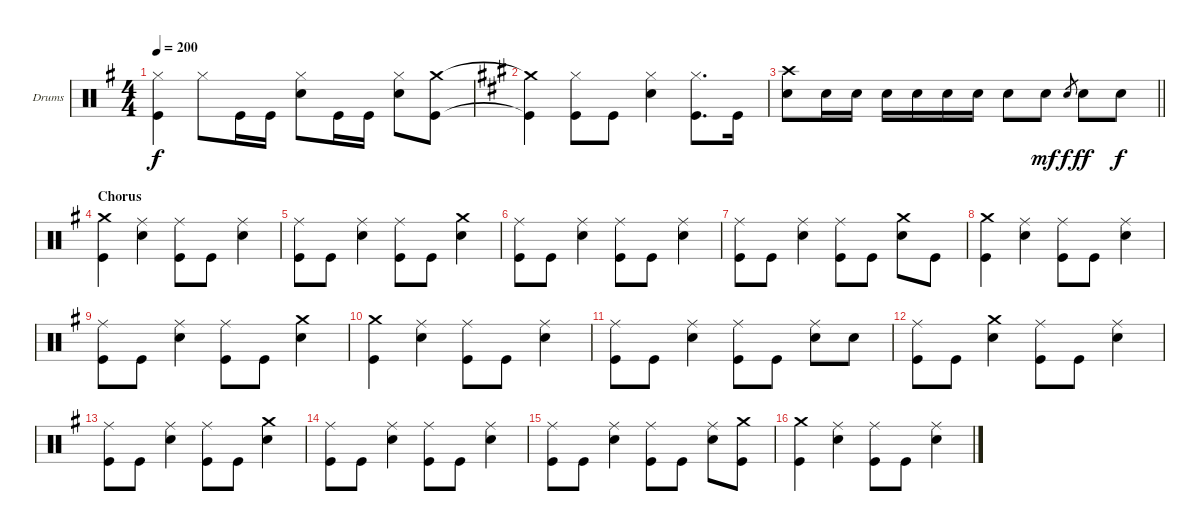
\bracketExtendMode groupsimilarinstruments
\firstSystemTrackNameOrientation horizontal
\otherSystemsTrackNameOrientation horizontal
\track ("Drums" "Drums") {instrument percussion}
\staff {score}
\articulation defaults
\ts (4 4)
\tempo 200
\clef neutral
\ks g
("Kick (hit)" "Hi-Hat (closed)").4{dy f} "Hi-Hat (closed)".8 "Kick (hit)".16 "Kick (hit)".16 ("Snare (hit) 2" "Hi-Hat (closed)").8 "Kick (hit)".16 "Kick (hit)".16 ("Snare (hit) 2" "Hi-Hat (closed)").8 ("Crash medium (hit)" "Kick (hit)").8 |
\ks a
("Crash medium (hit)"{t} "Kick (hit)"{t}).4 ("Hi-Hat (closed)" "Kick (hit)").8 "Kick (hit)".8 ("Hi-Hat (closed)" "Snare (hit) 2").4 ("Hi-Hat (closed)" "Kick (hit)").8{d} "Kick (hit)".16 |
\barLineRight lightlight
("Snare (hit) 2" "Crash high (hit)").8 "Snare (hit) 2".16 "Snare (hit) 2".16 "Snare (hit) 2".16 "Snare (hit) 2".16 "Snare (hit) 2".16 "Snare (hit) 2".16 "Snare (hit) 2".8 "Snare (hit) 2".8{dy mf} "Snare (hit) 2".8{gr dy f} "Snare (hit) 2".8{dy ff} "Snare (hit) 2".8{dy f} |
\section ("" "Chorus")
\ks g
("Crash medium (hit)" "Kick (hit)").4 ("Ride (middle)" "Snare (hit) 2").4 ("Ride (middle)" "Kick (hit)").8 "Kick (hit)".8 ("Ride (middle)" "Snare (hit) 2").4 |
("Ride (middle)" "Kick (hit)").8 "Kick (hit)".8 ("Ride (middle)" "Snare (hit) 2").4 ("Ride (middle)" "Kick (hit)").8 "Kick (hit)".8 ("Crash medium (hit)" "Snare (hit) 2").4 |
("Ride (middle)" "Kick (hit)").8 "Kick (hit)".8 ("Ride (middle)" "Snare (hit) 2").4 ("Ride (middle)" "Kick (hit)").8 "Kick (hit)".8 ("Ride (middle)" "Snare (hit) 2").4 |
("Ride (middle)" "Kick (hit)").8 "Kick (hit)".8 ("Ride (middle)" "Snare (hit) 2").4 ("Ride (middle)" "Kick (hit)").8 "Kick (hit)".8 ("Snare (hit) 2" "Crash medium (hit)").8 "Kick (hit)".8 |
("Crash medium (hit)" "Kick (hit)").4 ("Ride (middle)" "Snare (hit) 2").4 ("Ride (middle)" "Kick (hit)").8 "Kick (hit)".8 ("Ride (middle)" "Snare (hit) 2").4 |
("Ride (middle)" "Kick (hit)").8 "Kick (hit)".8 ("Ride (middle)" "Snare (hit) 2").4 ("Ride (middle)" "Kick (hit)").8 "Kick (hit)".8 ("Crash medium (hit)" "Snare (hit) 2").4 |
("Crash medium (hit)" "Kick (hit)").4 ("Ride (middle)" "Snare (hit) 2").4 ("Ride (middle)" "Kick (hit)").8 "Kick (hit)".8 ("Ride (middle)" "Snare (hit) 2").4 |
("Ride (middle)" "Kick (hit)").8 "Kick (hit)".8 ("Ride (middle)" "Snare (hit) 2").4 ("Ride (middle)" "Kick (hit)").8 "Kick (hit)".8 ("Ride (middle)" "Snare (hit) 2").8 "Snare (hit) 2".8 |
("Ride (middle)" "Kick (hit)").8 "Kick (hit)".8 ("Snare (hit) 2" "Crash medium (hit)").4 ("Ride (middle)" "Kick (hit)").8 "Kick (hit)".8 ("Ride (middle)" "Snare (hit) 2").4 |
("Ride (middle)" "Kick (hit)").8 "Kick (hit)".8 ("Ride (middle)" "Snare (hit) 2").4 ("Ride (middle)" "Kick (hit)").8 "Kick (hit)".8 ("Crash medium (hit)" "Snare (hit) 2").4 |
("Ride (middle)" "Kick (hit)").8 "Kick (hit)".8 ("Ride (middle)" "Snare (hit) 2").4 ("Ride (middle)" "Kick (hit)").8 "Kick (hit)".8 ("Ride (middle)" "Snare (hit) 2").4 |
("Ride (middle)" "Kick (hit)").8 "Kick (hit)".8 ("Ride (middle)" "Snare (hit) 2").4 ("Ride (middle)" "Kick (hit)").8 "Kick (hit)".8 ("Snare (hit) 2" "Ride (middle)").8 ("Kick (hit)" "Crash medium (hit)").8 |
("Crash medium (hit)" "Kick (hit)").4 ("Ride (middle)" "Snare (hit) 2").4 ("Ride (middle)" "Kick (hit)").8 "Kick (hit)".8 ("Ride (middle)" "Snare (hit) 2").4
